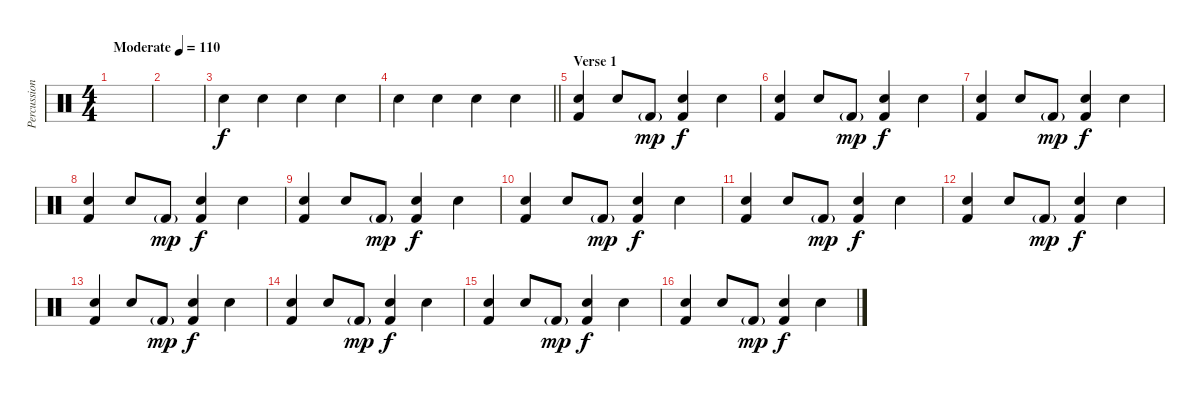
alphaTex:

\track ("Percussion" "Percussion") {instrument percussion}
\staff {score}
\articulation defaults
\ts (4 4)
\tempo (110 "Moderate")
\clef neutral
\ks c
|
|
"Hand Clap (hit)".4 "Hand Clap (hit)".4 "Hand Clap (hit)".4 "Hand Clap (hit)".4 |
\barLineRight lightlight "Hand Clap (hit)".4 "Hand Clap (hit)".4 "Hand Clap (hit)".4 "Hand Clap (hit)".4
|
\section ("" "Verse 1")
("Hand Clap (hit)" "Kick (hit) 2").4 "Hand Clap (hit)".8 "Kick (hit) 2"{g}.8{dy mp} ("Hand Clap (hit)" "Kick (hit) 2").4{dy f} "Hand Clap (hit)".4 |
("Hand Clap (hit)" "Kick (hit) 2").4 "Hand Clap (hit)".8 "Kick (hit) 2"{g}.8{dy mp} ("Hand Clap (hit)" "Kick (hit) 2").4{dy f} "Hand Clap (hit)".4 |
("Hand Clap (hit)" "Kick (hit) 2").4 "Hand Clap (hit)".8 "Kick (hit) 2"{g}.8{dy mp} ("Hand Clap (hit)" "Kick (hit) 2").4{dy f} "Hand Clap (hit)".4 |
("Hand Clap (hit)" "Kick (hit) 2").4 "Hand Clap (hit)".8 "Kick (hit) 2"{g}.8{dy mp} ("Hand Clap (hit)" "Kick (hit) 2").4{dy f} "Hand Clap (hit)".4 |
("Hand Clap (hit)" "Kick (hit) 2").4 "Hand Clap (hit)".8 "Kick (hit) 2"{g}.8{dy mp} ("Hand Clap (hit)" "Kick (hit) 2").4{dy f} "Hand Clap (hit)".4 |
("Hand Clap (hit)" "Kick (hit) 2").4 "Hand Clap (hit)".8 "Kick (hit) 2"{g}.8{dy mp} ("Hand Clap (hit)" "Kick (hit) 2").4{dy f} "Hand Clap (hit)".4 |
("Hand Clap (hit)" "Kick (hit) 2").4 "Hand Clap (hit)".8 "Kick (hit) 2"{g}.8{dy mp} ("Hand Clap (hit)" "Kick (hit) 2").4{dy f} "Hand Clap (hit)".4 |
("Hand Clap (hit)" "Kick (hit) 2").4 "Hand Clap (hit)".8 "Kick (hit) 2"{g}.8{dy mp} ("Hand Clap (hit)" "Kick (hit) 2").4{dy f} "Hand Clap (hit)".4 |
("Hand Clap (hit)" "Kick (hit) 2").4 "Hand Clap (hit)".8 "Kick (hit) 2"{g}.8{dy mp} ("Hand Clap (hit)" "Kick (hit) 2").4{dy f} "Hand Clap (hit)".4 |
("Hand Clap (hit)" "Kick (hit) 2").4 "Hand Clap (hit)".8 "Kick (hit) 2"{g}.8{dy mp} ("Hand Clap (hit)" "Kick (hit) 2").4{dy f} "Hand Clap (hit)".4 |
("Hand Clap (hit)" "Kick (hit) 2").4 "Hand Clap (hit)".8 "Kick (hit) 2"{g}.8{dy mp} ("Hand Clap (hit)" "Kick (hit) 2").4{dy f} "Hand Clap (hit)".4 |
("Hand Clap (hit)" "Kick (hit) 2").4 "Hand Clap (hit)".8 "Kick (hit) 2"{g}.8{dy mp} ("Hand Clap (hit)" "Kick (hit) 2").4{dy f} "Hand Clap (hit)".4
